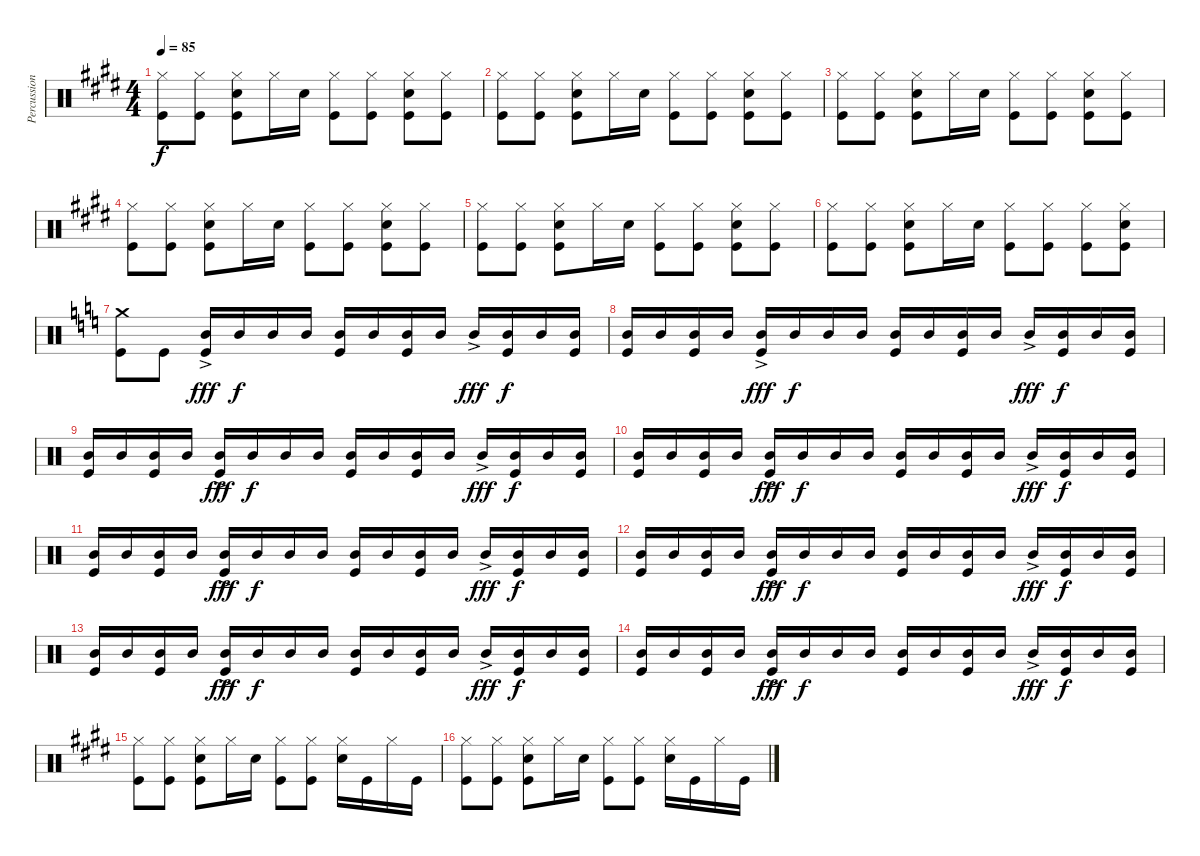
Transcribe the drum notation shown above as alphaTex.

\track ("Percussion" "Percussion") {instrument percussion}
\staff {score}
\articulation defaults
\ts (4 4)
\tempo 85
\clef neutral
\ks e
("Hi-Hat (closed)" "Kick (hit)").8{dy f} ("Hi-Hat (closed)" "Kick (hit)").8 ("Hi-Hat (closed)" "Snare (hit) 2" "Kick (hit)").8 "Hi-Hat (closed)".16 "Snare (hit) 2".16 ("Hi-Hat (closed)" "Kick (hit)").8 ("Hi-Hat (closed)" "Kick (hit)").8 ("Hi-Hat (closed)" "Snare (hit) 2" "Kick (hit)").8 ("Hi-Hat (closed)" "Kick (hit)").8 |
("Hi-Hat (closed)" "Kick (hit)").8 ("Hi-Hat (closed)" "Kick (hit)").8 ("Hi-Hat (closed)" "Snare (hit) 2" "Kick (hit)").8 "Hi-Hat (closed)".16 "Snare (hit) 2".16 ("Hi-Hat (closed)" "Kick (hit)").8 ("Hi-Hat (closed)" "Kick (hit)").8 ("Hi-Hat (closed)" "Snare (hit) 2" "Kick (hit)").8 ("Hi-Hat (closed)" "Kick (hit)").8 |
("Hi-Hat (closed)" "Kick (hit)").8 ("Hi-Hat (closed)" "Kick (hit)").8 ("Hi-Hat (closed)" "Snare (hit) 2" "Kick (hit)").8 "Hi-Hat (closed)".16 "Snare (hit) 2".16 ("Hi-Hat (closed)" "Kick (hit)").8 ("Hi-Hat (closed)" "Kick (hit)").8 ("Hi-Hat (closed)" "Snare (hit) 2" "Kick (hit)").8 ("Hi-Hat (closed)" "Kick (hit)").8 |
("Hi-Hat (closed)" "Kick (hit)").8 ("Hi-Hat (closed)" "Kick (hit)").8 ("Hi-Hat (closed)" "Snare (hit) 2" "Kick (hit)").8 "Hi-Hat (closed)".16 "Snare (hit) 2".16 ("Hi-Hat (closed)" "Kick (hit)").8 ("Hi-Hat (closed)" "Kick (hit)").8 ("Hi-Hat (closed)" "Snare (hit) 2" "Kick (hit)").8 ("Hi-Hat (closed)" "Kick (hit)").8 |
("Hi-Hat (closed)" "Kick (hit)").8 ("Hi-Hat (closed)" "Kick (hit)").8 ("Hi-Hat (closed)" "Snare (hit) 2" "Kick (hit)").8 "Hi-Hat (closed)".16 "Snare (hit) 2".16 ("Hi-Hat (closed)" "Kick (hit)").8 ("Hi-Hat (closed)" "Kick (hit)").8 ("Hi-Hat (closed)" "Snare (hit) 2" "Kick (hit)").8 ("Hi-Hat (closed)" "Kick (hit)").8 |
("Hi-Hat (closed)" "Kick (hit)").8 ("Hi-Hat (closed)" "Kick (hit)").8 ("Hi-Hat (closed)" "Snare (hit) 2" "Kick (hit)").8 "Hi-Hat (closed)".16 "Snare (hit) 2".16 ("Hi-Hat (closed)" "Kick (hit)").8 ("Hi-Hat (closed)" "Kick (hit)").8 ("Hi-Hat (closed)" "Kick (hit)").8 ("Hi-Hat (closed)" "Snare (hit) 2" "Kick (hit)").8 |
\ks c
("Crash medium (hit)" "Kick (hit)").8 "Kick (hit)".8 ("Mid Tom (hit)"{ac} "Kick (hit)").16{dy fff} "Mid Tom (hit)".16{dy f} "Mid Tom (hit)".16 "Mid Tom (hit)".16 ("Mid Tom (hit)" "Kick (hit)").16 "Mid Tom (hit)".16 ("Mid Tom (hit)" "Kick (hit)").16 "Mid Tom (hit)".16 "Mid Tom (hit)"{ac}.16{dy fff} ("Mid Tom (hit)" "Kick (hit)").16{dy f} "Mid Tom (hit)".16 ("Mid Tom (hit)" "Kick (hit)").16 |
("Mid Tom (hit)" "Kick (hit)").16 "Mid Tom (hit)".16 ("Mid Tom (hit)" "Kick (hit)").16 "Mid Tom (hit)".16 ("Mid Tom (hit)"{ac} "Kick (hit)").16{dy fff} "Mid Tom (hit)".16{dy f} "Mid Tom (hit)".16 "Mid Tom (hit)".16 ("Mid Tom (hit)" "Kick (hit)").16 "Mid Tom (hit)".16 ("Mid Tom (hit)" "Kick (hit)").16 "Mid Tom (hit)".16 "Mid Tom (hit)"{ac}.16{dy fff} ("Mid Tom (hit)" "Kick (hit)").16{dy f} "Mid Tom (hit)".16 ("Mid Tom (hit)" "Kick (hit)").16 |
("Mid Tom (hit)" "Kick (hit)").16 "Mid Tom (hit)".16 ("Mid Tom (hit)" "Kick (hit)").16 "Mid Tom (hit)".16 ("Mid Tom (hit)"{ac} "Kick (hit)").16{dy fff} "Mid Tom (hit)".16{dy f} "Mid Tom (hit)".16 "Mid Tom (hit)".16 ("Mid Tom (hit)" "Kick (hit)").16 "Mid Tom (hit)".16 ("Mid Tom (hit)" "Kick (hit)").16 "Mid Tom (hit)".16 "Mid Tom (hit)"{ac}.16{dy fff} ("Mid Tom (hit)" "Kick (hit)").16{dy f} "Mid Tom (hit)".16 ("Mid Tom (hit)" "Kick (hit)").16 |
("Mid Tom (hit)" "Kick (hit)").16 "Mid Tom (hit)".16 ("Mid Tom (hit)" "Kick (hit)").16 "Mid Tom (hit)".16 ("Mid Tom (hit)"{ac} "Kick (hit)").16{dy fff} "Mid Tom (hit)".16{dy f} "Mid Tom (hit)".16 "Mid Tom (hit)".16 ("Mid Tom (hit)" "Kick (hit)").16 "Mid Tom (hit)".16 ("Mid Tom (hit)" "Kick (hit)").16 "Mid Tom (hit)".16 "Mid Tom (hit)"{ac}.16{dy fff} ("Mid Tom (hit)" "Kick (hit)").16{dy f} "Mid Tom (hit)".16 ("Mid Tom (hit)" "Kick (hit)").16 |
("Mid Tom (hit)" "Kick (hit)").16 "Mid Tom (hit)".16 ("Mid Tom (hit)" "Kick (hit)").16 "Mid Tom (hit)".16 ("Mid Tom (hit)"{ac} "Kick (hit)").16{dy fff} "Mid Tom (hit)".16{dy f} "Mid Tom (hit)".16 "Mid Tom (hit)".16 ("Mid Tom (hit)" "Kick (hit)").16 "Mid Tom (hit)".16 ("Mid Tom (hit)" "Kick (hit)").16 "Mid Tom (hit)".16 "Mid Tom (hit)"{ac}.16{dy fff} ("Mid Tom (hit)" "Kick (hit)").16{dy f} "Mid Tom (hit)".16 ("Mid Tom (hit)" "Kick (hit)").16 |
("Mid Tom (hit)" "Kick (hit)").16 "Mid Tom (hit)".16 ("Mid Tom (hit)" "Kick (hit)").16 "Mid Tom (hit)".16 ("Mid Tom (hit)"{ac} "Kick (hit)").16{dy fff} "Mid Tom (hit)".16{dy f} "Mid Tom (hit)".16 "Mid Tom (hit)".16 ("Mid Tom (hit)" "Kick (hit)").16 "Mid Tom (hit)".16 ("Mid Tom (hit)" "Kick (hit)").16 "Mid Tom (hit)".16 "Mid Tom (hit)"{ac}.16{dy fff} ("Mid Tom (hit)" "Kick (hit)").16{dy f} "Mid Tom (hit)".16 ("Mid Tom (hit)" "Kick (hit)").16 |
("Mid Tom (hit)" "Kick (hit)").16 "Mid Tom (hit)".16 ("Mid Tom (hit)" "Kick (hit)").16 "Mid Tom (hit)".16 ("Mid Tom (hit)"{ac} "Kick (hit)").16{dy fff} "Mid Tom (hit)".16{dy f} "Mid Tom (hit)".16 "Mid Tom (hit)".16 ("Mid Tom (hit)" "Kick (hit)").16 "Mid Tom (hit)".16 ("Mid Tom (hit)" "Kick (hit)").16 "Mid Tom (hit)".16 "Mid Tom (hit)"{ac}.16{dy fff} ("Mid Tom (hit)" "Kick (hit)").16{dy f} "Mid Tom (hit)".16 ("Mid Tom (hit)" "Kick (hit)").16 |
("Mid Tom (hit)" "Kick (hit)").16 "Mid Tom (hit)".16 ("Mid Tom (hit)" "Kick (hit)").16 "Mid Tom (hit)".16 ("Mid Tom (hit)"{ac} "Kick (hit)").16{dy fff} "Mid Tom (hit)".16{dy f} "Mid Tom (hit)".16 "Mid Tom (hit)".16 ("Mid Tom (hit)" "Kick (hit)").16 "Mid Tom (hit)".16 ("Mid Tom (hit)" "Kick (hit)").16 "Mid Tom (hit)".16 "Mid Tom (hit)"{ac}.16{dy fff} ("Mid Tom (hit)" "Kick (hit)").16{dy f} "Mid Tom (hit)".16 ("Mid Tom (hit)" "Kick (hit)").16 |
\ks e
("Hi-Hat (closed)" "Kick (hit)").8 ("Hi-Hat (closed)" "Kick (hit)").8 ("Hi-Hat (closed)" "Snare (hit) 2" "Kick (hit)").8 "Hi-Hat (closed)".16 "Snare (hit) 2".16 ("Hi-Hat (closed)" "Kick (hit)").8 ("Hi-Hat (closed)" "Kick (hit)").8 ("Hi-Hat (closed)" "Snare (hit) 2").16 "Kick (hit)".16 "Hi-Hat (closed)".16 "Kick (hit)".16 |
("Hi-Hat (closed)" "Kick (hit)").8 ("Hi-Hat (closed)" "Kick (hit)").8 ("Hi-Hat (closed)" "Snare (hit) 2" "Kick (hit)").8 "Hi-Hat (closed)".16 "Snare (hit) 2".16 ("Hi-Hat (closed)" "Kick (hit)").8 ("Hi-Hat (closed)" "Kick (hit)").8 ("Hi-Hat (closed)" "Snare (hit) 2").16 "Kick (hit)".16 "Hi-Hat (closed)".16 "Kick (hit)".16
